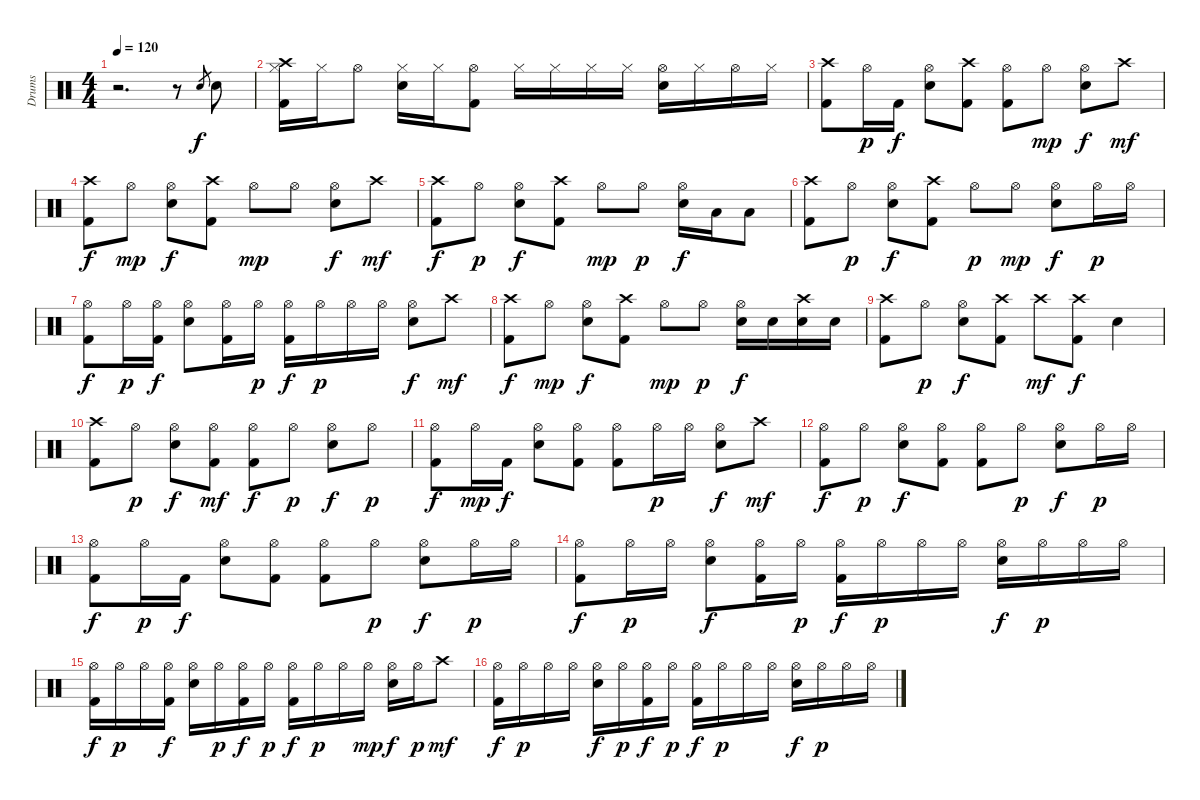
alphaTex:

\track ("Drums" "Drums") {instrument percussion}
\staff {score}
\articulation defaults
\ts (4 4)
\tempo 120
\clef neutral
\ks c
r.2{d dy f} r.8 "Electric Snare (hit)".8{gr} "Electric Snare (hit)".8 |
("Hi-Hat (closed)" "Crash high (hit)" "Kick (hit) 2").16 "Hi-Hat (closed)".16 "Hi-Hat (open)".8 ("Hi-Hat (closed)" "Electric Snare (hit)").16 "Hi-Hat (closed)".16 ("Hi-Hat (open)" "Kick (hit) 2").8 "Hi-Hat (closed)".16 "Hi-Hat (closed)".16 "Hi-Hat (closed)".16 "Hi-Hat (closed)".16 ("Hi-Hat (open)" "Electric Snare (hit)").16 "Hi-Hat (closed)".16 "Hi-Hat (open)".16 "Hi-Hat (closed)".16 |
("Crash high (hit)" "Kick (hit) 2").8 "Hi-Hat (open)".16{dy p} "Kick (hit) 2".16{dy f} ("Hi-Hat (open)" "Electric Snare (hit)").8 ("Crash high (hit)" "Kick (hit) 2").8 ("Hi-Hat (open)" "Kick (hit) 2").8 "Hi-Hat (open)".8{dy mp} ("Hi-Hat (open)" "Electric Snare (hit)").8{dy f} "Crash high (hit)".8{dy mf} |
("Crash high (hit)" "Kick (hit) 2").8{dy f} "Hi-Hat (open)".8{dy mp} ("Hi-Hat (open)" "Electric Snare (hit)").8{dy f} ("Crash high (hit)" "Kick (hit) 2").8 "Hi-Hat (open)".8{dy mp} "Hi-Hat (open)".8 ("Hi-Hat (open)" "Electric Snare (hit)").8{dy f} "Crash high (hit)".8{dy mf} |
("Crash high (hit)" "Kick (hit) 2").8{dy f} "Hi-Hat (open)".8{dy p} ("Hi-Hat (open)" "Electric Snare (hit)").8{dy f} ("Crash high (hit)" "Kick (hit) 2").8 "Hi-Hat (open)".8{dy mp} "Hi-Hat (open)".8{dy p} ("Hi-Hat (open)" "Electric Snare (hit)").16{dy f} "Low Tom (hit)".16 "Low Floor Tom (hit)".8 |
("Crash high (hit)" "Kick (hit) 2").8 "Hi-Hat (open)".8{dy p} ("Hi-Hat (open)" "Electric Snare (hit)").8{dy f} ("Crash high (hit)" "Kick (hit) 2").8 "Hi-Hat (open)".8{dy p} "Hi-Hat (open)".8{dy mp} ("Hi-Hat (open)" "Electric Snare (hit)").8{dy f} "Hi-Hat (open)".16{dy p} "Hi-Hat (open)".16 |
("Hi-Hat (open)" "Kick (hit) 2").8{dy f} "Hi-Hat (open)".16{dy p} ("Hi-Hat (open)" "Kick (hit) 2").16{dy f} ("Hi-Hat (open)" "Electric Snare (hit)").8 ("Hi-Hat (open)" "Kick (hit) 2").16 "Hi-Hat (open)".16{dy p} ("Hi-Hat (open)" "Kick (hit) 2").16{dy f} "Hi-Hat (open)".16{dy p} "Hi-Hat (open)".16 "Hi-Hat (open)".16 ("Hi-Hat (open)" "Electric Snare (hit)").8{dy f} "Crash high (hit)".8{dy mf} |
("Crash high (hit)" "Kick (hit) 2").8{dy f} "Hi-Hat (open)".8{dy mp} ("Hi-Hat (open)" "Electric Snare (hit)").8{dy f} ("Crash high (hit)" "Kick (hit) 2").8 "Hi-Hat (open)".8{dy mp} "Hi-Hat (open)".8{dy p} ("Hi-Hat (open)" "Electric Snare (hit)").16{dy f} "Electric Snare (hit)".16 ("Crash high (hit)" "Electric Snare (hit)").16 "Electric Snare (hit)".16 |
("Crash high (hit)" "Kick (hit) 2").8 "Hi-Hat (open)".8{dy p} ("Hi-Hat (open)" "Electric Snare (hit)").8{dy f} ("Crash high (hit)" "Kick (hit) 2").8 "Crash high (hit)".8{dy mf} ("Crash high (hit)" "Kick (hit) 2").8{dy f} "Electric Snare (hit)".4 |
("Crash high (hit)" "Kick (hit) 2").8 "Hi-Hat (open)".8{dy p} ("Hi-Hat (open)" "Electric Snare (hit)").8{dy f} ("Hi-Hat (open)" "Kick (hit) 2").8{dy mf} ("Hi-Hat (open)" "Kick (hit) 2").8{dy f} "Hi-Hat (open)".8{dy p} ("Hi-Hat (open)" "Electric Snare (hit)").8{dy f} "Hi-Hat (open)".8{dy p} |
("Hi-Hat (open)" "Kick (hit) 2").8{dy f} "Hi-Hat (open)".16{dy mp} "Kick (hit) 2".16{dy f} ("Hi-Hat (open)" "Electric Snare (hit)").8 ("Hi-Hat (open)" "Kick (hit) 2").8 ("Hi-Hat (open)" "Kick (hit) 2").8 "Hi-Hat (open)".16{dy p} "Hi-Hat (open)".16 ("Hi-Hat (open)" "Electric Snare (hit)").8{dy f} "Crash high (hit)".8{dy mf} |
("Hi-Hat (open)" "Kick (hit) 2").8{dy f} "Hi-Hat (open)".8{dy p} ("Hi-Hat (open)" "Electric Snare (hit)").8{dy f} ("Hi-Hat (open)" "Kick (hit) 2").8 ("Hi-Hat (open)" "Kick (hit) 2").8 "Hi-Hat (open)".8{dy p} ("Hi-Hat (open)" "Electric Snare (hit)").8{dy f} "Hi-Hat (open)".16{dy p} "Hi-Hat (open)".16 |
("Hi-Hat (open)" "Kick (hit) 2").8{dy f} "Hi-Hat (open)".16{dy p} "Kick (hit) 2".16{dy f} ("Hi-Hat (open)" "Electric Snare (hit)").8 ("Hi-Hat (open)" "Kick (hit) 2").8 ("Hi-Hat (open)" "Kick (hit) 2").8 "Hi-Hat (open)".8{dy p} ("Hi-Hat (open)" "Electric Snare (hit)").8{dy f} "Hi-Hat (open)".16{dy p} "Hi-Hat (open)".16 |
("Hi-Hat (open)" "Kick (hit) 2").8{dy f} "Hi-Hat (open)".16{dy p} "Hi-Hat (open)".16 ("Hi-Hat (open)" "Electric Snare (hit)").8{dy f} ("Hi-Hat (open)" "Kick (hit) 2").16 "Hi-Hat (open)".16{dy p} ("Hi-Hat (open)" "Kick (hit) 2").16{dy f} "Hi-Hat (open)".16{dy p} "Hi-Hat (open)".16 "Hi-Hat (open)".16 ("Hi-Hat (open)" "Electric Snare (hit)").16{dy f} "Hi-Hat (open)".16{dy p} "Hi-Hat (open)".16 "Hi-Hat (open)".16 |
("Hi-Hat (open)" "Kick (hit) 2").16{dy f} "Hi-Hat (open)".16{dy p} "Hi-Hat (open)".16 ("Hi-Hat (open)" "Kick (hit) 2").16{dy f} ("Hi-Hat (open)" "Electric Snare (hit)").16 "Hi-Hat (open)".16{dy p} ("Hi-Hat (open)" "Kick (hit) 2").16{dy f} "Hi-Hat (open)".16{dy p} ("Hi-Hat (open)" "Kick (hit) 2").16{dy f} "Hi-Hat (open)".16{dy p} "Hi-Hat (open)".16 "Hi-Hat (open)".16{dy mp} ("Hi-Hat (open)" "Electric Snare (hit)").16{dy f} "Hi-Hat (open)".16{dy p} "Crash high (hit)".8{dy mf} |
("Hi-Hat (open)" "Kick (hit) 2").16{dy f} "Hi-Hat (open)".16{dy p} "Hi-Hat (open)".16 "Hi-Hat (open)".16 ("Hi-Hat (open)" "Electric Snare (hit)").16{dy f} "Hi-Hat (open)".16{dy p} ("Hi-Hat (open)" "Kick (hit) 2").16{dy f} "Hi-Hat (open)".16{dy p} ("Hi-Hat (open)" "Kick (hit) 2").16{dy f} "Hi-Hat (open)".16{dy p} "Hi-Hat (open)".16 "Hi-Hat (open)".16 ("Hi-Hat (open)" "Electric Snare (hit)").16{dy f} "Hi-Hat (open)".16{dy p} "Hi-Hat (open)".16 "Hi-Hat (open)".16
